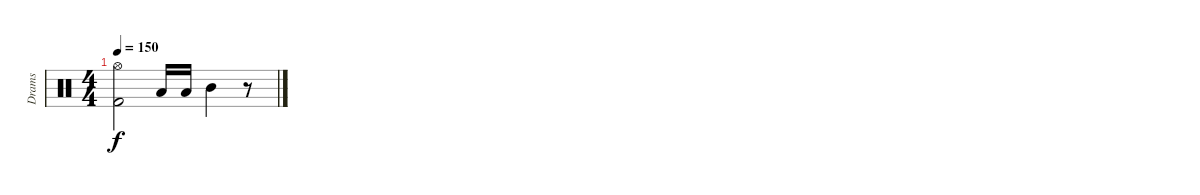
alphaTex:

\track ("Drams" "Drams") {instrument percussion}
\staff {score}
\articulation defaults
\ts (4 4)
\tempo 150
\clef neutral
\ks aminor
("Kick (hit) 2" "Hi-Hat (open)").2{dy f} "Low Tom (hit)".16 "Low Tom (hit)".16 "Mid Tom (hit)".4 r.8
